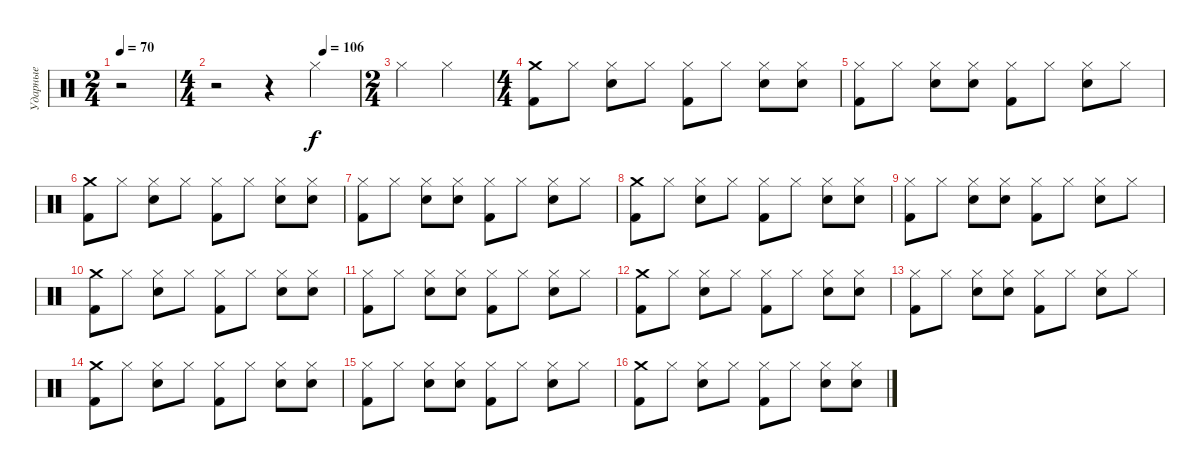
\track ("Ударные" "Ударные") {instrument percussion}
\staff {score}
\articulation defaults
\ts (2 4)
\tempo 70
\clef neutral
\ks c
r.2{dy f} |
\ts (4 4)
\tempo (106 0.75)
r.2 r.4 "Hi-Hat (closed)".4 |
\ts (2 4)
"Hi-Hat (closed)".4 "Hi-Hat (closed)".4 |
\ts (4 4)
("Crash medium (hit)" "Kick (hit) 2").8 "Hi-Hat (closed)".8 ("Hi-Hat (closed)" "Snare (hit) 2").8 "Hi-Hat (closed)".8 ("Hi-Hat (closed)" "Kick (hit) 2").8 "Hi-Hat (closed)".8 ("Hi-Hat (closed)" "Snare (hit) 2").8 ("Hi-Hat (closed)" "Snare (hit) 2").8 |
("Hi-Hat (closed)" "Kick (hit) 2").8 "Hi-Hat (closed)".8 ("Hi-Hat (closed)" "Snare (hit) 2").8 ("Hi-Hat (closed)" "Snare (hit) 2").8 ("Hi-Hat (closed)" "Kick (hit) 2").8 "Hi-Hat (closed)".8 ("Hi-Hat (closed)" "Snare (hit) 2").8 "Hi-Hat (closed)".8 |
("Crash medium (hit)" "Kick (hit) 2").8 "Hi-Hat (closed)".8 ("Hi-Hat (closed)" "Snare (hit) 2").8 "Hi-Hat (closed)".8 ("Hi-Hat (closed)" "Kick (hit) 2").8 "Hi-Hat (closed)".8 ("Hi-Hat (closed)" "Snare (hit) 2").8 ("Hi-Hat (closed)" "Snare (hit) 2").8 |
("Hi-Hat (closed)" "Kick (hit) 2").8 "Hi-Hat (closed)".8 ("Hi-Hat (closed)" "Snare (hit) 2").8 ("Hi-Hat (closed)" "Snare (hit) 2").8 ("Hi-Hat (closed)" "Kick (hit) 2").8 "Hi-Hat (closed)".8 ("Hi-Hat (closed)" "Snare (hit) 2").8 "Hi-Hat (closed)".8 |
("Crash medium (hit)" "Kick (hit) 2").8 "Hi-Hat (closed)".8 ("Hi-Hat (closed)" "Snare (hit) 2").8 "Hi-Hat (closed)".8 ("Hi-Hat (closed)" "Kick (hit) 2").8 "Hi-Hat (closed)".8 ("Hi-Hat (closed)" "Snare (hit) 2").8 ("Hi-Hat (closed)" "Snare (hit) 2").8 |
("Hi-Hat (closed)" "Kick (hit) 2").8 "Hi-Hat (closed)".8 ("Hi-Hat (closed)" "Snare (hit) 2").8 ("Hi-Hat (closed)" "Snare (hit) 2").8 ("Hi-Hat (closed)" "Kick (hit) 2").8 "Hi-Hat (closed)".8 ("Hi-Hat (closed)" "Snare (hit) 2").8 "Hi-Hat (closed)".8 |
("Crash medium (hit)" "Kick (hit) 2").8 "Hi-Hat (closed)".8 ("Hi-Hat (closed)" "Snare (hit) 2").8 "Hi-Hat (closed)".8 ("Hi-Hat (closed)" "Kick (hit) 2").8 "Hi-Hat (closed)".8 ("Hi-Hat (closed)" "Snare (hit) 2").8 ("Hi-Hat (closed)" "Snare (hit) 2").8 |
("Hi-Hat (closed)" "Kick (hit) 2").8 "Hi-Hat (closed)".8 ("Hi-Hat (closed)" "Snare (hit) 2").8 ("Hi-Hat (closed)" "Snare (hit) 2").8 ("Hi-Hat (closed)" "Kick (hit) 2").8 "Hi-Hat (closed)".8 ("Hi-Hat (closed)" "Snare (hit) 2").8 "Hi-Hat (closed)".8 |
("Crash medium (hit)" "Kick (hit) 2").8 "Hi-Hat (closed)".8 ("Hi-Hat (closed)" "Snare (hit) 2").8 "Hi-Hat (closed)".8 ("Hi-Hat (closed)" "Kick (hit) 2").8 "Hi-Hat (closed)".8 ("Hi-Hat (closed)" "Snare (hit) 2").8 ("Hi-Hat (closed)" "Snare (hit) 2").8 |
("Hi-Hat (closed)" "Kick (hit) 2").8 "Hi-Hat (closed)".8 ("Hi-Hat (closed)" "Snare (hit) 2").8 ("Hi-Hat (closed)" "Snare (hit) 2").8 ("Hi-Hat (closed)" "Kick (hit) 2").8 "Hi-Hat (closed)".8 ("Hi-Hat (closed)" "Snare (hit) 2").8 "Hi-Hat (closed)".8 |
("Crash medium (hit)" "Kick (hit) 2").8 "Hi-Hat (closed)".8 ("Hi-Hat (closed)" "Snare (hit) 2").8 "Hi-Hat (closed)".8 ("Hi-Hat (closed)" "Kick (hit) 2").8 "Hi-Hat (closed)".8 ("Hi-Hat (closed)" "Snare (hit) 2").8 ("Hi-Hat (closed)" "Snare (hit) 2").8 |
("Hi-Hat (closed)" "Kick (hit) 2").8 "Hi-Hat (closed)".8 ("Hi-Hat (closed)" "Snare (hit) 2").8 ("Hi-Hat (closed)" "Snare (hit) 2").8 ("Hi-Hat (closed)" "Kick (hit) 2").8 "Hi-Hat (closed)".8 ("Hi-Hat (closed)" "Snare (hit) 2").8 "Hi-Hat (closed)".8 |
("Crash medium (hit)" "Kick (hit) 2").8 "Hi-Hat (closed)".8 ("Hi-Hat (closed)" "Snare (hit) 2").8 "Hi-Hat (closed)".8 ("Hi-Hat (closed)" "Kick (hit) 2").8 "Hi-Hat (closed)".8 ("Hi-Hat (closed)" "Snare (hit) 2").8 ("Hi-Hat (closed)" "Snare (hit) 2").8
